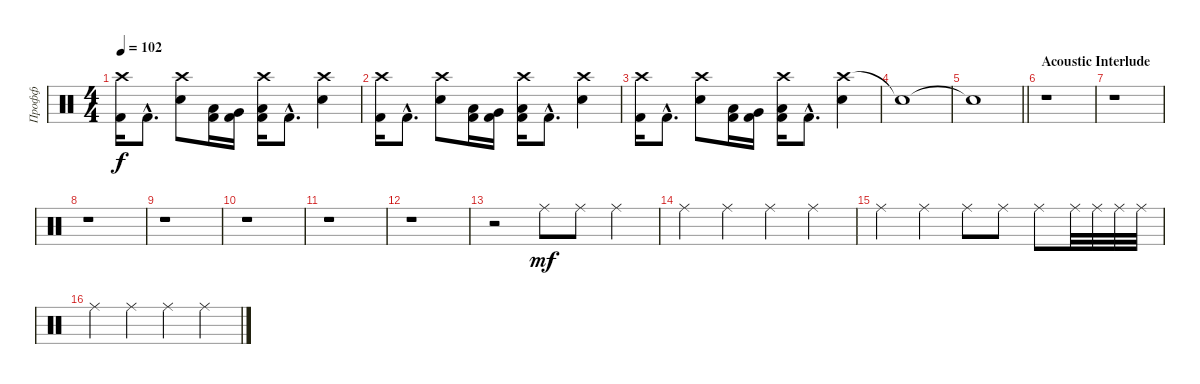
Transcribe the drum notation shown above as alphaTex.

\track ("Профф" "Профф") {instrument percussion}
\staff {score}
\articulation defaults
\ts (4 4)
\tempo 102
\clef neutral
\ks c
("Crash high (hit)" "Kick (hit) 2").16{dy f} "Kick (hit) 2"{hac}.8{d} ("Crash high (hit)" "Snare (hit) 2").8 ("Low Tom (hit)" "Kick (hit) 2").16 ("Very Low Tom (hit)" "Kick (hit) 2").16 ("Crash high (hit)" "Low Floor Tom (hit)" "Kick (hit) 2").16 "Kick (hit) 2"{hac}.8{d} ("Crash high (hit)" "Snare (hit) 2").4 |
("Crash high (hit)" "Kick (hit) 2").16 "Kick (hit) 2"{hac}.8{d} ("Crash high (hit)" "Snare (hit) 2").8 ("Low Tom (hit)" "Kick (hit) 2").16 ("Very Low Tom (hit)" "Kick (hit) 2").16 ("Crash high (hit)" "Low Floor Tom (hit)" "Kick (hit) 2").16 "Kick (hit) 2"{hac}.8{d} ("Crash high (hit)" "Snare (hit) 2").4 |
("Crash high (hit)" "Kick (hit) 2").16 "Kick (hit) 2"{hac}.8{d} ("Crash high (hit)" "Snare (hit) 2").8 ("Low Tom (hit)" "Kick (hit) 2").16 ("Very Low Tom (hit)" "Kick (hit) 2").16 ("Crash high (hit)" "Low Floor Tom (hit)" "Kick (hit) 2").16 "Kick (hit) 2"{hac}.8{d} ("Crash high (hit)" "Snare (hit) 2").4 |
"Snare (hit)"{t}.1 |
\barLineRight lightlight "Snare (hit)"{t}.1
|
\section ("" "Acoustic Interlude")
r.1 |
r.1 |
r.1 |
r.1 |
r.1 |
r.1 |
r.1 |
r.2 "Ride (middle)".8{dy mf} "Ride (middle)".8 "Ride (middle)".4 |
"Ride (middle)".4 "Ride (middle)".4 "Ride (middle)".4 "Ride (middle)".4 |
"Ride (middle)".4 "Ride (middle)".4 "Ride (middle)".8 "Ride (middle)".8 "Ride (middle)".8 "Ride (middle)".32 "Ride (middle)".32 "Ride (middle)".32 "Ride (middle)".32 |
"Ride (middle)".4 "Ride (middle)".4 "Ride (middle)".4 "Ride (middle)".4
